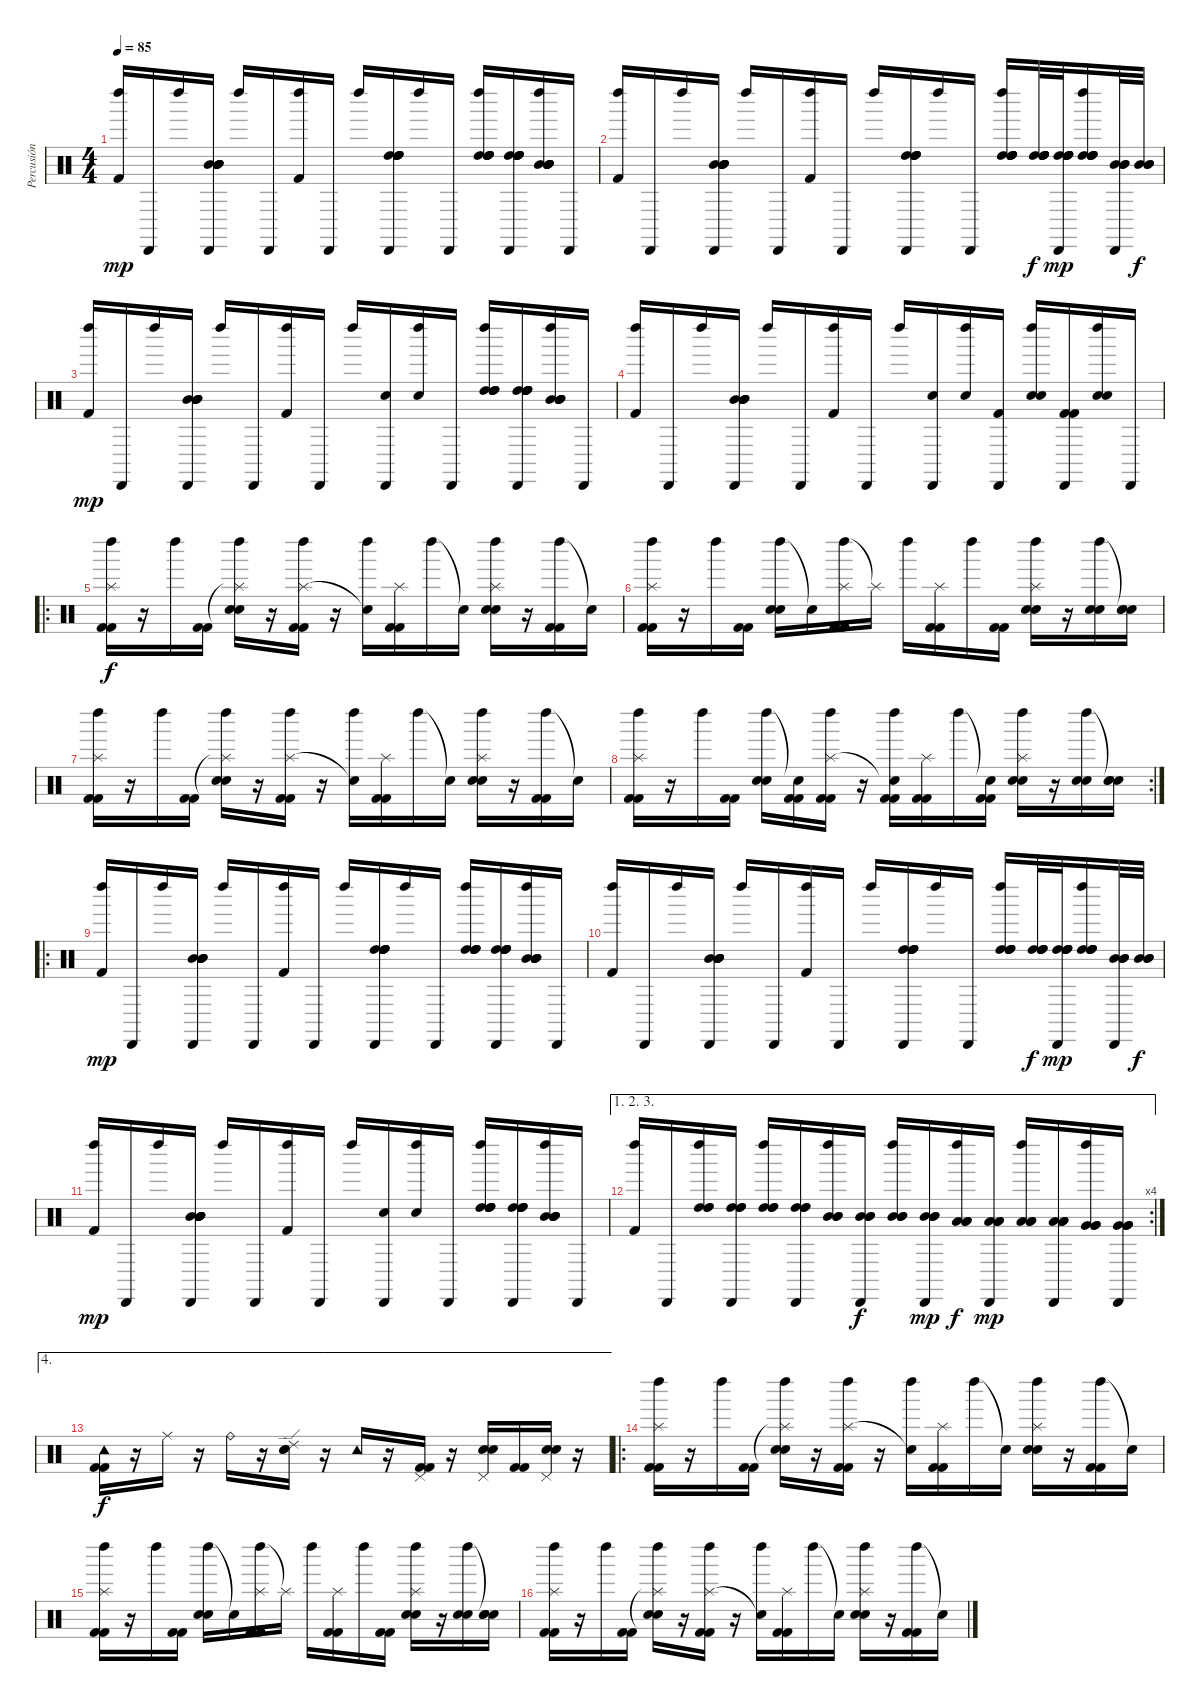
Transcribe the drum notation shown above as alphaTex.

\track ("Percusión" "Percusión") {instrument percussion}
\staff {score}
\articulation defaults
\ts (4 4)
\tempo 85
\clef neutral
\ks c
("Left Maraca (hit)" "Kick (hit) 2").16{dy mp} "Cabasa (hit)".16 "Left Maraca (hit)".16 ("Cabasa (hit)" "Mid Tom (hit)" "Mid Tom (hit)" "Mid Tom (hit)" "Mid Tom (hit)" "Mid Tom (hit)").16 "Left Maraca (hit)".16 "Cabasa (hit)".16 ("Left Maraca (hit)" "Kick (hit) 2").16 "Cabasa (hit)".16 "Left Maraca (hit)".16 ("Cabasa (hit)" "High Tom (hit)" "High Tom (hit)" "High Tom (hit)" "High Tom (hit)" "High Tom (hit)").16 "Left Maraca (hit)".16 "Cabasa (hit)".16 ("Left Maraca (hit)" "High Tom (hit)" "High Tom (hit)" "High Tom (hit)" "High Tom (hit)" "High Tom (hit)").16 ("Cabasa (hit)" "High Tom (hit)" "High Tom (hit)" "High Tom (hit)" "High Tom (hit)" "High Tom (hit)").16 ("Left Maraca (hit)" "Mid Tom (hit)" "Mid Tom (hit)" "Mid Tom (hit)" "Mid Tom (hit)" "Mid Tom (hit)").16 "Cabasa (hit)".16 |
("Left Maraca (hit)" "Kick (hit) 2").16 "Cabasa (hit)".16 "Left Maraca (hit)".16 ("Cabasa (hit)" "Mid Tom (hit)" "Mid Tom (hit)" "Mid Tom (hit)" "Mid Tom (hit)" "Mid Tom (hit)").16 "Left Maraca (hit)".16 "Cabasa (hit)".16 ("Left Maraca (hit)" "Kick (hit) 2").16 "Cabasa (hit)".16 "Left Maraca (hit)".16 ("Cabasa (hit)" "High Tom (hit)" "High Tom (hit)" "High Tom (hit)" "High Tom (hit)" "High Tom (hit)").16 "Left Maraca (hit)".16 "Cabasa (hit)".16 ("Left Maraca (hit)" "High Tom (hit)" "High Tom (hit)" "High Tom (hit)" "High Tom (hit)" "High Tom (hit)").16 ("High Tom (hit)" "High Tom (hit)" "High Tom (hit)" "High Tom (hit)" "High Tom (hit)").32{dy f} ("Cabasa (hit)" "High Tom (hit)" "High Tom (hit)" "High Tom (hit)" "High Tom (hit)" "High Tom (hit)").32{dy mp} ("Left Maraca (hit)" "High Tom (hit)" "High Tom (hit)" "High Tom (hit)" "High Tom (hit)" "High Tom (hit)").16 ("Cabasa (hit)" "Mid Tom (hit)" "Mid Tom (hit)" "Mid Tom (hit)").32 ("Mid Tom (hit)" "Mid Tom (hit)" "Mid Tom (hit)").32{dy f} |
("Left Maraca (hit)" "Kick (hit) 2").16{dy mp} "Cabasa (hit)".16 "Left Maraca (hit)".16 ("Cabasa (hit)" "Mid Tom (hit)" "Mid Tom (hit)" "Mid Tom (hit)" "Mid Tom (hit)" "Mid Tom (hit)").16 "Left Maraca (hit)".16 "Cabasa (hit)".16 ("Left Maraca (hit)" "Kick (hit) 2").16 "Cabasa (hit)".16 "Left Maraca (hit)".16 ("Cabasa (hit)" "Electric Snare (hit)").16 ("Left Maraca (hit)" "Electric Snare (hit)").16 "Cabasa (hit)".16 ("Left Maraca (hit)" "High Tom (hit)" "High Tom (hit)" "High Tom (hit)" "High Tom (hit)" "High Tom (hit)").16 ("Cabasa (hit)" "High Tom (hit)" "High Tom (hit)" "High Tom (hit)" "High Tom (hit)" "High Tom (hit)").16 ("Left Maraca (hit)" "Mid Tom (hit)" "Mid Tom (hit)" "Mid Tom (hit)" "Mid Tom (hit)" "Mid Tom (hit)").16 "Cabasa (hit)".16 |
("Left Maraca (hit)" "Kick (hit) 2").16 "Cabasa (hit)".16 "Left Maraca (hit)".16 ("Cabasa (hit)" "Mid Tom (hit)" "Mid Tom (hit)" "Mid Tom (hit)" "Mid Tom (hit)" "Mid Tom (hit)").16 "Left Maraca (hit)".16 "Cabasa (hit)".16 ("Left Maraca (hit)" "Kick (hit) 2").16 "Cabasa (hit)".16 "Left Maraca (hit)".16 ("Cabasa (hit)" "Electric Snare (hit)").16 ("Left Maraca (hit)" "Electric Snare (hit)").16 ("Cabasa (hit)" "Kick (hit) 2").16 ("Left Maraca (hit)" "Electric Snare (hit)" "Electric Snare (hit)").16 ("Cabasa (hit)" "Kick (hit) 2" "Kick (hit) 2").16 ("Left Maraca (hit)" "Electric Snare (hit)" "Electric Snare (hit)").16 "Cabasa (hit)".16 |
\ro
("Left Maraca (hit)" "Splash (hit)" "Kick (hit) 2" "Kick (hit) 2").16{dy f} r.16 "Left Maraca (hit)".16 ("Kick (hit) 2" "Kick (hit) 2").16 ("Left Maraca (hit)" "Splash (hit)"{t} "Electric Snare (hit)" "Electric Snare (hit)").16 r.16 ("Left Maraca (hit)" "Splash (hit)" "Kick (hit) 2" "Kick (hit) 2").16 r.16 ("Left Maraca (hit)" "Snare (hit)"{t}).16 ("Splash (hit)" "Kick (hit) 2" "Kick (hit) 2").16 "Left Maraca (hit)".16 "Snare (hit)"{t}.16 ("Left Maraca (hit)" "Splash (hit)" "Electric Snare (hit)" "Electric Snare (hit)").16 r.16 ("Left Maraca (hit)" "Kick (hit) 2" "Kick (hit) 2").16 "Snare (hit)"{t}.16 |
("Left Maraca (hit)" "Splash (hit)" "Kick (hit) 2" "Kick (hit) 2").16 r.16 "Left Maraca (hit)".16 ("Kick (hit) 2" "Kick (hit) 2").16 ("Left Maraca (hit)" "Electric Snare (hit)" "Electric Snare (hit)").16 "Snare (hit)"{t}.16 ("Left Maraca (hit)" "Splash (hit)" "Kick (hit) 2" "Kick (hit) 2").16 "Splash (hit)"{t}.16 "Left Maraca (hit)".16 ("Splash (hit)" "Kick (hit) 2" "Kick (hit) 2").16 "Left Maraca (hit)".16 ("Kick (hit) 2" "Kick (hit) 2").16 ("Left Maraca (hit)" "Splash (hit)" "Electric Snare (hit)" "Electric Snare (hit)").16 r.16 ("Left Maraca (hit)" "Electric Snare (hit)" "Electric Snare (hit)").16 ("Snare (hit)"{t} "Electric Snare (hit)" "Electric Snare (hit)").16 |
("Left Maraca (hit)" "Splash (hit)" "Kick (hit) 2" "Kick (hit) 2").16 r.16 "Left Maraca (hit)".16 ("Kick (hit) 2" "Kick (hit) 2").16 ("Left Maraca (hit)" "Splash (hit)"{t} "Electric Snare (hit)" "Electric Snare (hit)").16 r.16 ("Left Maraca (hit)" "Splash (hit)" "Kick (hit) 2" "Kick (hit) 2").16 r.16 ("Left Maraca (hit)" "Snare (hit)"{t}).16 ("Splash (hit)" "Kick (hit) 2" "Kick (hit) 2").16 "Left Maraca (hit)".16 "Snare (hit)"{t}.16 ("Left Maraca (hit)" "Splash (hit)" "Electric Snare (hit)" "Electric Snare (hit)").16 r.16 ("Left Maraca (hit)" "Kick (hit) 2" "Kick (hit) 2").16 "Snare (hit)"{t}.16 |
\rc 2
("Left Maraca (hit)" "Splash (hit)" "Kick (hit) 2" "Kick (hit) 2").16 r.16 "Left Maraca (hit)".16 ("Kick (hit) 2" "Kick (hit) 2").16 ("Left Maraca (hit)" "Electric Snare (hit)" "Electric Snare (hit)").16 ("Snare (hit)"{t} "Kick (hit) 2" "Kick (hit) 2").16 ("Left Maraca (hit)" "Splash (hit)" "Kick (hit) 2" "Kick (hit) 2").16 r.16 ("Left Maraca (hit)" "Snare (hit)"{t} "Kick (hit) 2" "Kick (hit) 2").16 ("Splash (hit)" "Kick (hit) 2" "Kick (hit) 2").16 "Left Maraca (hit)".16 ("Snare (hit)"{t} "Kick (hit) 2" "Kick (hit) 2").16 ("Left Maraca (hit)" "Splash (hit)" "Electric Snare (hit)" "Electric Snare (hit)").16 r.16 ("Left Maraca (hit)" "Electric Snare (hit)" "Electric Snare (hit)").16 ("Snare (hit)"{t} "Electric Snare (hit)" "Electric Snare (hit)").16 |
\ro
("Left Maraca (hit)" "Kick (hit) 2").16{dy mp} "Cabasa (hit)".16 "Left Maraca (hit)".16 ("Cabasa (hit)" "Mid Tom (hit)" "Mid Tom (hit)" "Mid Tom (hit)" "Mid Tom (hit)" "Mid Tom (hit)").16 "Left Maraca (hit)".16 "Cabasa (hit)".16 ("Left Maraca (hit)" "Kick (hit) 2").16 "Cabasa (hit)".16 "Left Maraca (hit)".16 ("Cabasa (hit)" "High Tom (hit)" "High Tom (hit)" "High Tom (hit)" "High Tom (hit)" "High Tom (hit)").16 "Left Maraca (hit)".16 "Cabasa (hit)".16 ("Left Maraca (hit)" "High Tom (hit)" "High Tom (hit)" "High Tom (hit)" "High Tom (hit)" "High Tom (hit)").16 ("Cabasa (hit)" "High Tom (hit)" "High Tom (hit)" "High Tom (hit)" "High Tom (hit)" "High Tom (hit)").16 ("Left Maraca (hit)" "Mid Tom (hit)" "Mid Tom (hit)" "Mid Tom (hit)" "Mid Tom (hit)" "Mid Tom (hit)").16 "Cabasa (hit)".16 |
("Left Maraca (hit)" "Kick (hit) 2").16 "Cabasa (hit)".16 "Left Maraca (hit)".16 ("Cabasa (hit)" "Mid Tom (hit)" "Mid Tom (hit)" "Mid Tom (hit)" "Mid Tom (hit)" "Mid Tom (hit)").16 "Left Maraca (hit)".16 "Cabasa (hit)".16 ("Left Maraca (hit)" "Kick (hit) 2").16 "Cabasa (hit)".16 "Left Maraca (hit)".16 ("Cabasa (hit)" "High Tom (hit)" "High Tom (hit)" "High Tom (hit)" "High Tom (hit)" "High Tom (hit)").16 "Left Maraca (hit)".16 "Cabasa (hit)".16 ("Left Maraca (hit)" "High Tom (hit)" "High Tom (hit)" "High Tom (hit)" "High Tom (hit)" "High Tom (hit)").16 ("High Tom (hit)" "High Tom (hit)" "High Tom (hit)" "High Tom (hit)" "High Tom (hit)").32{dy f} ("Cabasa (hit)" "High Tom (hit)" "High Tom (hit)" "High Tom (hit)" "High Tom (hit)" "High Tom (hit)").32{dy mp} ("Left Maraca (hit)" "High Tom (hit)" "High Tom (hit)" "High Tom (hit)" "High Tom (hit)" "High Tom (hit)").16 ("Cabasa (hit)" "Mid Tom (hit)" "Mid Tom (hit)" "Mid Tom (hit)").32 ("Mid Tom (hit)" "Mid Tom (hit)" "Mid Tom (hit)").32{dy f} |
("Left Maraca (hit)" "Kick (hit) 2").16{dy mp} "Cabasa (hit)".16 "Left Maraca (hit)".16 ("Cabasa (hit)" "Mid Tom (hit)" "Mid Tom (hit)" "Mid Tom (hit)" "Mid Tom (hit)" "Mid Tom (hit)").16 "Left Maraca (hit)".16 "Cabasa (hit)".16 ("Left Maraca (hit)" "Kick (hit) 2").16 "Cabasa (hit)".16 "Left Maraca (hit)".16 ("Cabasa (hit)" "Electric Snare (hit)").16 ("Left Maraca (hit)" "Electric Snare (hit)").16 "Cabasa (hit)".16 ("Left Maraca (hit)" "High Tom (hit)" "High Tom (hit)" "High Tom (hit)" "High Tom (hit)" "High Tom (hit)").16 ("Cabasa (hit)" "High Tom (hit)" "High Tom (hit)" "High Tom (hit)" "High Tom (hit)" "High Tom (hit)").16 ("Left Maraca (hit)" "Mid Tom (hit)" "Mid Tom (hit)" "Mid Tom (hit)" "Mid Tom (hit)" "Mid Tom (hit)").16 "Cabasa (hit)".16 |
\ae (1 2 3)
\rc 4
("Left Maraca (hit)" "Kick (hit) 2").16 "Cabasa (hit)".16 ("Left Maraca (hit)" "High Tom (hit)" "High Tom (hit)" "High Tom (hit)").16 ("Cabasa (hit)" "High Tom (hit)" "High Tom (hit)" "High Tom (hit)").16 ("Left Maraca (hit)" "High Tom (hit)" "High Tom (hit)" "High Tom (hit)").16 ("Cabasa (hit)" "High Tom (hit)" "High Tom (hit)" "High Tom (hit)").16 ("Left Maraca (hit)" "Mid Tom (hit)" "Mid Tom (hit)" "Mid Tom (hit)").16 ("Cabasa (hit)" "Mid Tom (hit)" "Mid Tom (hit)" "Mid Tom (hit)").16{dy f} ("Left Maraca (hit)" "Mid Tom (hit)" "Mid Tom (hit)" "Mid Tom (hit)").16 ("Cabasa (hit)" "Mid Tom (hit)" "Mid Tom (hit)" "Mid Tom (hit)").16{dy mp} ("Left Maraca (hit)" "Low Tom (hit)" "Low Tom (hit)" "Low Tom (hit)").16{dy f} ("Cabasa (hit)" "Low Tom (hit)" "Low Tom (hit)" "Low Tom (hit)").16{dy mp} ("Left Maraca (hit)" "Low Tom (hit)" "Low Tom (hit)" "Low Tom (hit)").16 ("Cabasa (hit)" "Low Tom (hit)" "Low Tom (hit)" "Low Tom (hit)").16 ("Left Maraca (hit)" "Very Low Tom (hit)" "Very Low Tom (hit)" "Very Low Tom (hit)").16 ("Cabasa (hit)" "Very Low Tom (hit)" "Very Low Tom (hit)" "Very Low Tom (hit)").16 |
\ae 4
("Tambourine (hit)" "Kick (hit) 2" "Kick (hit) 2").16{dy f} r.16 "Ride (middle)".16 r.16 "Ride (bell)".16 r.16 ("Ride (edge) 2" "Electric Snare (hit)" "Electric Snare (hit)").16 r.16 "Tambourine (hit)".16 r.16 ("Pedal Hi-Hat (hit)" "Kick (hit) 2" "Kick (hit) 2").16 r.16 ("Pedal Hi-Hat (hit)" "Electric Snare (hit)" "Electric Snare (hit)").16 ("Kick (hit) 2" "Kick (hit) 2").16 ("Pedal Hi-Hat (hit)" "Electric Snare (hit)" "Electric Snare (hit)").16 r.16 |
\ro
("Left Maraca (hit)" "Splash (hit)" "Kick (hit) 2" "Kick (hit) 2").16 r.16 "Left Maraca (hit)".16 ("Kick (hit) 2" "Kick (hit) 2").16 ("Left Maraca (hit)" "Splash (hit)"{t} "Electric Snare (hit)" "Electric Snare (hit)").16 r.16 ("Left Maraca (hit)" "Splash (hit)" "Kick (hit) 2" "Kick (hit) 2").16 r.16 ("Left Maraca (hit)" "Snare (hit)"{t}).16 ("Splash (hit)" "Kick (hit) 2" "Kick (hit) 2").16 "Left Maraca (hit)".16 "Snare (hit)"{t}.16 ("Left Maraca (hit)" "Splash (hit)" "Electric Snare (hit)" "Electric Snare (hit)").16 r.16 ("Left Maraca (hit)" "Kick (hit) 2" "Kick (hit) 2").16 "Snare (hit)"{t}.16 |
("Left Maraca (hit)" "Splash (hit)" "Kick (hit) 2" "Kick (hit) 2").16 r.16 "Left Maraca (hit)".16 ("Kick (hit) 2" "Kick (hit) 2").16 ("Left Maraca (hit)" "Electric Snare (hit)" "Electric Snare (hit)").16 "Snare (hit)"{t}.16 ("Left Maraca (hit)" "Splash (hit)" "Kick (hit) 2" "Kick (hit) 2").16 "Splash (hit)"{t}.16 "Left Maraca (hit)".16 ("Splash (hit)" "Kick (hit) 2" "Kick (hit) 2").16 "Left Maraca (hit)".16 ("Kick (hit) 2" "Kick (hit) 2").16 ("Left Maraca (hit)" "Splash (hit)" "Electric Snare (hit)" "Electric Snare (hit)").16 r.16 ("Left Maraca (hit)" "Electric Snare (hit)" "Electric Snare (hit)").16 ("Snare (hit)"{t} "Electric Snare (hit)" "Electric Snare (hit)").16 |
("Left Maraca (hit)" "Splash (hit)" "Kick (hit) 2" "Kick (hit) 2").16 r.16 "Left Maraca (hit)".16 ("Kick (hit) 2" "Kick (hit) 2").16 ("Left Maraca (hit)" "Splash (hit)"{t} "Electric Snare (hit)" "Electric Snare (hit)").16 r.16 ("Left Maraca (hit)" "Splash (hit)" "Kick (hit) 2" "Kick (hit) 2").16 r.16 ("Left Maraca (hit)" "Snare (hit)"{t}).16 ("Splash (hit)" "Kick (hit) 2" "Kick (hit) 2").16 "Left Maraca (hit)".16 "Snare (hit)"{t}.16 ("Left Maraca (hit)" "Splash (hit)" "Electric Snare (hit)" "Electric Snare (hit)").16 r.16 ("Left Maraca (hit)" "Kick (hit) 2" "Kick (hit) 2").16 "Snare (hit)"{t}.16
